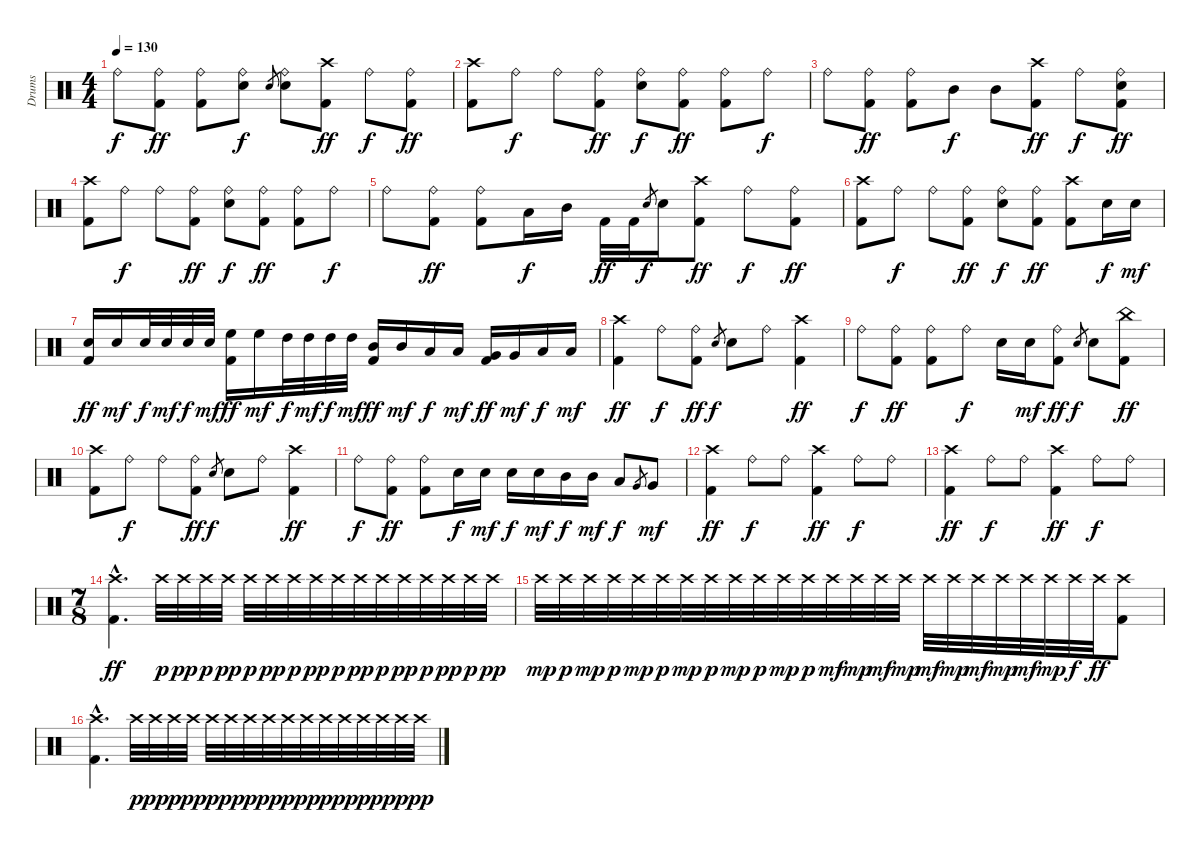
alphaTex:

\track ("Drums" "Drums") {instrument percussion}
\staff {score}
\articulation defaults
\ts (4 4)
\tempo 130
\clef neutral
\ks c "Ride (bell)".8{dy f}
("Ride (bell)" "Kick (hit) 2").8{dy ff} ("Ride (bell)" "Kick (hit) 2").8 ("Ride (bell)" "Snare (hit) 2").8{dy f} "Snare (hit) 2".8{gr} ("Ride (bell)" "Snare (hit) 2").8 ("Crash high (hit)" "Kick (hit) 2").8{dy ff} "Ride (bell)".8{dy f} ("Ride (bell)" "Kick (hit) 2").8{dy ff} |
("Crash high (hit)" "Kick (hit) 2").8 "Ride (bell)".8{dy f} "Ride (bell)".8 ("Ride (bell)" "Kick (hit) 2").8{dy ff} ("Ride (bell)" "Snare (hit) 2").8{dy f} ("Ride (bell)" "Kick (hit) 2").8{dy ff} ("Ride (bell)" "Kick (hit) 2").8 "Ride (bell)".8{dy f} |
"Ride (bell)".8 ("Ride (bell)" "Kick (hit) 2").8{dy ff} ("Ride (bell)" "Kick (hit) 2").8 "Mid Tom (hit)".8{dy f} "Mid Tom (hit)".8 ("Crash high (hit)" "Kick (hit) 2").8{dy ff} "Ride (bell)".8{dy f} ("Ride (bell)" "Snare (hit) 2" "Kick (hit) 2").8{dy ff} |
("Crash high (hit)" "Kick (hit) 2").8 "Ride (bell)".8{dy f} "Ride (bell)".8 ("Ride (bell)" "Kick (hit) 2").8{dy ff} ("Ride (bell)" "Snare (hit) 2").8{dy f} ("Ride (bell)" "Kick (hit) 2").8{dy ff} ("Ride (bell)" "Kick (hit) 2").8 "Ride (bell)".8{dy f} |
"Ride (bell)".8 ("Ride (bell)" "Kick (hit) 2").8{dy ff} ("Ride (bell)" "Kick (hit) 2").8 "Low Tom (hit)".16{dy f} "Mid Tom (hit)".16 "Kick (hit) 2".32{dy ff} "Kick (hit) 2".32 "Snare (hit) 2".8{gr dy f} "Snare (hit) 2".16 ("Crash high (hit)" "Kick (hit) 2").8{dy ff} "Ride (bell)".8{dy f} ("Ride (bell)" "Kick (hit) 2").8{dy ff} |
("Crash high (hit)" "Kick (hit) 2").8 "Ride (bell)".8{dy f} "Ride (bell)".8 ("Ride (bell)" "Kick (hit) 2").8{dy ff} ("Ride (bell)" "Snare (hit) 2").8{dy f} ("Ride (bell)" "Kick (hit) 2").8{dy ff} ("Crash high (hit)" "Kick (hit) 2").8 "Snare (hit) 2".16{dy f} "Snare (hit) 2".16{dy mf} |
("Snare (hit) 2" "Kick (hit) 2").16{dy ff} "Snare (hit) 2".16{dy mf} "Snare (hit) 2".32{dy f} "Snare (hit) 2".32{dy mf} "Snare (hit) 2".32{dy f} "Snare (hit) 2".32{dy mf} ("High Floor Tom (hit)" "Kick (hit) 2").16{dy ff} "High Floor Tom (hit)".16{dy mf} "High Tom (hit)".32{dy f} "High Tom (hit)".32{dy mf} "High Tom (hit)".32{dy f} "High Tom (hit)".32{dy mf} ("Mid Tom (hit)" "Kick (hit) 2").16{dy ff} "Mid Tom (hit)".16{dy mf} "Low Tom (hit)".16{dy f} "Low Tom (hit)".16{dy mf} ("Very Low Tom (hit)" "Kick (hit) 2").16{dy ff} "Very Low Tom (hit)".16{dy mf} "Low Floor Tom (hit)".16{dy f} "Low Floor Tom (hit)".16{dy mf} |
("Crash high (hit)" "Kick (hit) 2").4{dy ff} "Ride (bell)".8{dy f} ("Ride (bell)" "Kick (hit) 2").8{dy ff} "Snare (hit) 2".8{gr dy f} "Snare (hit) 2".8 "Ride (bell)".8 ("Crash high (hit)" "Kick (hit) 2").4{dy ff} |
"Ride (bell)".8{dy f} ("Ride (bell)" "Kick (hit) 2").8{dy ff} ("Ride (bell)" "Kick (hit) 2").8 "Ride (bell)".8{dy f} "Snare (hit) 2".16 "Snare (hit) 2".16{dy mf} ("Ride (bell)" "Kick (hit) 2").8{dy ff} "Snare (hit) 2".8{gr dy f} "Snare (hit) 2".8 ("China (hit)" "Kick (hit) 2").8{dy ff} |
("Crash high (hit)" "Kick (hit) 2").8 "Ride (bell)".8{dy f} "Ride (bell)".8 ("Ride (bell)" "Kick (hit) 2").8{dy ff} "Snare (hit) 2".8{gr dy f} "Snare (hit) 2".8 "Ride (bell)".8 ("Crash high (hit)" "Kick (hit) 2").4{dy ff} |
"Ride (bell)".8{dy f} ("Ride (bell)" "Kick (hit) 2").8{dy ff} ("Ride (bell)" "Kick (hit) 2").8 "Snare (hit) 2".16{dy f} "Snare (hit) 2".16{dy mf} "Snare (hit) 2".16{dy f} "Snare (hit) 2".16{dy mf} "Mid Tom (hit)".16{dy f} "Mid Tom (hit)".16{dy mf} "Low Tom (hit)".8{dy f} "Very Low Tom (hit)".8{gr} "Very Low Tom (hit)".8{dy mf} |
("Crash high (hit)" "Kick (hit) 2").4{dy ff} "Ride (bell)".8{dy f} "Ride (bell)".8 ("Crash high (hit)" "Kick (hit) 2").4{dy ff} "Ride (bell)".8{dy f} "Ride (bell)".8 |
("Crash high (hit)" "Kick (hit) 2").4{dy ff} "Ride (bell)".8{dy f} "Ride (bell)".8 ("Crash high (hit)" "Kick (hit) 2").4{dy ff} "Ride (bell)".8{dy f} "Ride (bell)".8 |
\ts (7 8)
("Crash high (hit)"{hac} "Kick (hit) 2"{hac}).4{d dy ff} "Crash high (hit)".32{dy p} "Crash high (hit)".32{dy pp} "Crash high (hit)".32{dy p} "Crash high (hit)".32{dy pp} "Crash high (hit)".32{dy p} "Crash high (hit)".32{dy pp} "Crash high (hit)".32{dy p} "Crash high (hit)".32{dy pp} "Crash high (hit)".32{dy p} "Crash high (hit)".32{dy pp} "Crash high (hit)".32{dy p} "Crash high (hit)".32{dy pp} "Crash high (hit)".32{dy p} "Crash high (hit)".32{dy pp} "Crash high (hit)".32{dy p} "Crash high (hit)".32{dy pp} |
"Crash high (hit)".32{dy mp} "Crash high (hit)".32{dy p} "Crash high (hit)".32{dy mp} "Crash high (hit)".32{dy p} "Crash high (hit)".32{dy mp} "Crash high (hit)".32{dy p} "Crash high (hit)".32{dy mp} "Crash high (hit)".32{dy p} "Crash high (hit)".32{dy mp} "Crash high (hit)".32{dy p} "Crash high (hit)".32{dy mp} "Crash high (hit)".32{dy p} "Crash high (hit)".32{dy mf} "Crash high (hit)".32{dy mp} "Crash high (hit)".32{dy mf} "Crash high (hit)".32{dy mp} "Crash high (hit)".32{dy mf} "Crash high (hit)".32{dy mp} "Crash high (hit)".32{dy mf} "Crash high (hit)".32{dy mp} "Crash high (hit)".32{dy mf} "Crash high (hit)".32{dy mp} "Crash high (hit)".32{dy f} "Crash high (hit)".32{dy ff} ("Crash high (hit)" "Kick (hit) 2").8 |
("Crash high (hit)"{hac} "Kick (hit) 2"{hac}).4{d} "Crash high (hit)".32{dy p} "Crash high (hit)".32{dy pp} "Crash high (hit)".32{dy p} "Crash high (hit)".32{dy pp} "Crash high (hit)".32{dy p} "Crash high (hit)".32{dy pp} "Crash high (hit)".32{dy p} "Crash high (hit)".32{dy pp} "Crash high (hit)".32{dy p} "Crash high (hit)".32{dy pp} "Crash high (hit)".32{dy p} "Crash high (hit)".32{dy pp} "Crash high (hit)".32{dy p} "Crash high (hit)".32{dy pp} "Crash high (hit)".32{dy p} "Crash high (hit)".32{dy pp}
